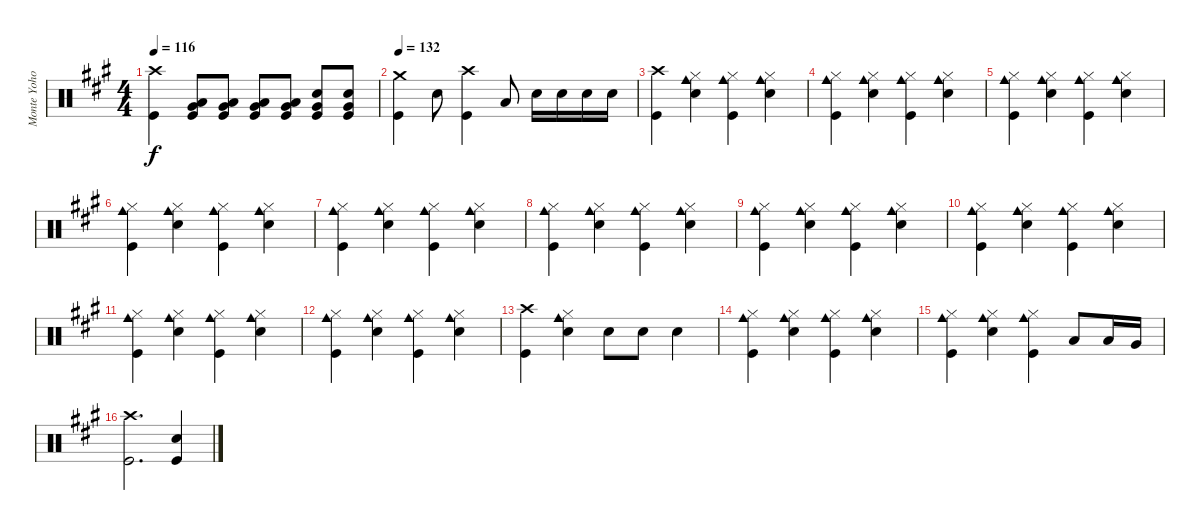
\track ("Monte Yoho Drums" "Monte Yoho") {instrument percussion}
\staff {score}
\articulation defaults
\ts (4 4)
\tempo 116
\clef neutral
\ks a
("Crash high (hit)" "Kick (hit)").4{dy f} ("Low Tom (hit)" "Very Low Tom (hit)" "Kick (hit)").8 ("Low Tom (hit)" "Very Low Tom (hit)" "Kick (hit)").8 ("Low Tom (hit)" "Very Low Tom (hit)" "Kick (hit)").8 ("Low Tom (hit)" "Very Low Tom (hit)" "Kick (hit)").8 ("Snare (hit) 2" "Very Low Tom (hit)" "Kick (hit)").8 ("Snare (hit) 2" "Very Low Tom (hit)" "Kick (hit)").8 |
\tempo 132
("Crash medium (hit)" "Kick (hit)").4 "Snare (hit) 2".8 ("Crash high (hit)" "Kick (hit)").4 "Low Tom (hit)".8 "Snare (hit) 2".16 "Snare (hit) 2".16 "Snare (hit) 2".16 "Snare (hit) 2".16 |
("Crash high (hit)" "Kick (hit)").4 ("Hi-Hat (closed)" "Cowbell medium (hit)" "Snare (hit) 2").4 ("Hi-Hat (closed)" "Cowbell medium (hit)" "Kick (hit)").4 ("Hi-Hat (closed)" "Cowbell medium (hit)" "Snare (hit) 2").4 |
("Hi-Hat (closed)" "Cowbell medium (hit)" "Kick (hit)").4 ("Hi-Hat (closed)" "Cowbell medium (hit)" "Snare (hit) 2").4 ("Hi-Hat (closed)" "Cowbell medium (hit)" "Kick (hit)").4 ("Hi-Hat (closed)" "Cowbell medium (hit)" "Snare (hit) 2").4 |
("Hi-Hat (closed)" "Cowbell medium (hit)" "Kick (hit)").4 ("Hi-Hat (closed)" "Cowbell medium (hit)" "Snare (hit) 2").4 ("Hi-Hat (closed)" "Cowbell medium (hit)" "Kick (hit)").4 ("Hi-Hat (closed)" "Cowbell medium (hit)" "Snare (hit) 2").4 |
("Hi-Hat (closed)" "Cowbell medium (hit)" "Kick (hit)").4 ("Hi-Hat (closed)" "Cowbell medium (hit)" "Snare (hit) 2").4 ("Hi-Hat (closed)" "Cowbell medium (hit)" "Kick (hit)").4 ("Hi-Hat (closed)" "Cowbell medium (hit)" "Snare (hit) 2").4 |
("Hi-Hat (closed)" "Cowbell medium (hit)" "Kick (hit)").4 ("Hi-Hat (closed)" "Cowbell medium (hit)" "Snare (hit) 2").4 ("Hi-Hat (closed)" "Cowbell medium (hit)" "Kick (hit)").4 ("Hi-Hat (closed)" "Cowbell medium (hit)" "Snare (hit) 2").4 |
("Hi-Hat (closed)" "Cowbell medium (hit)" "Kick (hit)").4 ("Hi-Hat (closed)" "Cowbell medium (hit)" "Snare (hit) 2").4 ("Hi-Hat (closed)" "Cowbell medium (hit)" "Kick (hit)").4 ("Hi-Hat (closed)" "Cowbell medium (hit)" "Snare (hit) 2").4 |
("Hi-Hat (closed)" "Cowbell medium (hit)" "Kick (hit)").4 ("Hi-Hat (closed)" "Cowbell medium (hit)" "Snare (hit) 2").4 ("Hi-Hat (closed)" "Cowbell medium (hit)" "Kick (hit)").4 ("Hi-Hat (closed)" "Cowbell medium (hit)" "Snare (hit) 2").4 |
("Hi-Hat (closed)" "Cowbell medium (hit)" "Kick (hit)").4 ("Hi-Hat (closed)" "Cowbell medium (hit)" "Snare (hit) 2").4 ("Hi-Hat (closed)" "Cowbell medium (hit)" "Kick (hit)").4 ("Hi-Hat (closed)" "Cowbell medium (hit)" "Snare (hit) 2").4 |
("Hi-Hat (closed)" "Cowbell medium (hit)" "Kick (hit)").4 ("Hi-Hat (closed)" "Cowbell medium (hit)" "Snare (hit) 2").4 ("Hi-Hat (closed)" "Cowbell medium (hit)" "Kick (hit)").4 ("Hi-Hat (closed)" "Cowbell medium (hit)" "Snare (hit) 2").4 |
("Hi-Hat (closed)" "Cowbell medium (hit)" "Kick (hit)").4 ("Hi-Hat (closed)" "Cowbell medium (hit)" "Snare (hit) 2").4 ("Hi-Hat (closed)" "Cowbell medium (hit)" "Kick (hit)").4 ("Hi-Hat (closed)" "Cowbell medium (hit)" "Snare (hit) 2").4 |
("Crash high (hit)" "Kick (hit)").4 ("Hi-Hat (closed)" "Cowbell medium (hit)" "Snare (hit) 2").4 "Snare (hit) 2".8 "Snare (hit) 2".8 "Snare (hit) 2".4 |
("Hi-Hat (closed)" "Cowbell medium (hit)" "Kick (hit)").4 ("Hi-Hat (closed)" "Cowbell medium (hit)" "Snare (hit) 2").4 ("Hi-Hat (closed)" "Cowbell medium (hit)" "Kick (hit)").4 ("Hi-Hat (closed)" "Cowbell medium (hit)" "Snare (hit) 2").4 |
("Hi-Hat (closed)" "Cowbell medium (hit)" "Kick (hit)").4 ("Hi-Hat (closed)" "Cowbell medium (hit)" "Snare (hit) 2").4 ("Hi-Hat (closed)" "Cowbell medium (hit)" "Kick (hit)").4 "Low Tom (hit)".8 "Low Tom (hit)".16 "Very Low Tom (hit)".16 |
("Crash high (hit)" "Kick (hit)").2{d} ("Snare (hit) 2" "Kick (hit)").4
